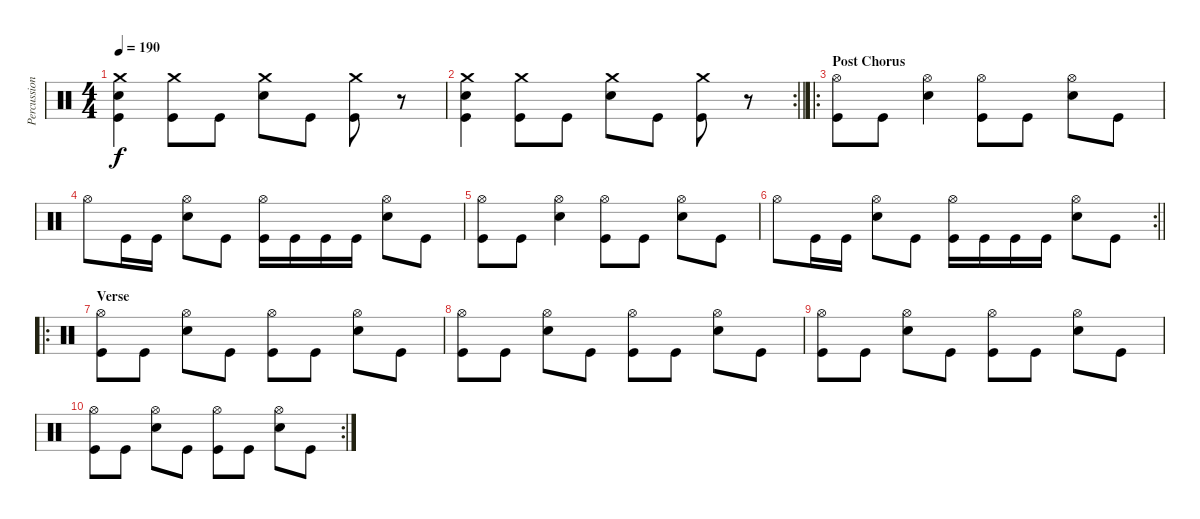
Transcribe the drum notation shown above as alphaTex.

\track ("Percussion" "Percussion") {instrument percussion}
\staff {score}
\articulation defaults
\ts (4 4)
\tempo 190
\clef neutral
\ks c
("Crash medium (hit)" "Snare (hit) 2" "Kick (hit)").4{dy f} ("Crash medium (hit)" "Kick (hit)").8 "Kick (hit)".8 ("Crash medium (hit)" "Snare (hit) 2").8 "Kick (hit)".8 ("Crash medium (hit)" "Kick (hit)").8 r.8 |
\rc 2
\barLineRight lightlight
("Crash medium (hit)" "Snare (hit) 2" "Kick (hit)").4 ("Crash medium (hit)" "Kick (hit)").8 "Kick (hit)".8 ("Crash medium (hit)" "Snare (hit) 2").8 "Kick (hit)".8 ("Crash medium (hit)" "Kick (hit)").8 r.8 |
\ro
\section ("" "Post Chorus")
("Hi-Hat (open)" "Kick (hit)").8 "Kick (hit)".8 ("Hi-Hat (open)" "Snare (hit) 2").4 ("Hi-Hat (open)" "Kick (hit)").8 "Kick (hit)".8 ("Hi-Hat (open)" "Snare (hit) 2").8 "Kick (hit)".8 |
"Hi-Hat (open)".8 "Kick (hit)".16 "Kick (hit)".16 ("Hi-Hat (open)" "Snare (hit) 2").8 "Kick (hit)".8 ("Hi-Hat (open)" "Kick (hit)").16 "Kick (hit)".16 "Kick (hit)".16 "Kick (hit)".16 ("Hi-Hat (open)" "Snare (hit) 2").8 "Kick (hit)".8 |
("Hi-Hat (open)" "Kick (hit)").8 "Kick (hit)".8 ("Hi-Hat (open)" "Snare (hit) 2").4 ("Hi-Hat (open)" "Kick (hit)").8 "Kick (hit)".8 ("Hi-Hat (open)" "Snare (hit) 2").8 "Kick (hit)".8 |
\rc 2
\barLineRight lightlight "Hi-Hat (open)".8 "Kick (hit)".16 "Kick (hit)".16
("Hi-Hat (open)" "Snare (hit) 2").8 "Kick (hit)".8 ("Hi-Hat (open)" "Kick (hit)").16 "Kick (hit)".16 "Kick (hit)".16 "Kick (hit)".16 ("Hi-Hat (open)" "Snare (hit) 2").8 "Kick (hit)".8 |
\ro
\section ("" "Verse")
("Hi-Hat (open)" "Kick (hit)").8 "Kick (hit)".8 ("Hi-Hat (open)" "Snare (hit) 2").8 "Kick (hit)".8 ("Hi-Hat (open)" "Kick (hit)").8 "Kick (hit)".8 ("Hi-Hat (open)" "Snare (hit) 2").8 "Kick (hit)".8 |
("Hi-Hat (open)" "Kick (hit)").8 "Kick (hit)".8 ("Hi-Hat (open)" "Snare (hit) 2").8 "Kick (hit)".8 ("Hi-Hat (open)" "Kick (hit)").8 "Kick (hit)".8 ("Hi-Hat (open)" "Snare (hit) 2").8 "Kick (hit)".8 |
("Hi-Hat (open)" "Kick (hit)").8 "Kick (hit)".8 ("Hi-Hat (open)" "Snare (hit) 2").8 "Kick (hit)".8 ("Hi-Hat (open)" "Kick (hit)").8 "Kick (hit)".8 ("Hi-Hat (open)" "Snare (hit) 2").8 "Kick (hit)".8 |
\rc 2
("Hi-Hat (open)" "Kick (hit)").8 "Kick (hit)".8 ("Hi-Hat (open)" "Snare (hit) 2").8 "Kick (hit)".8 ("Hi-Hat (open)" "Kick (hit)").8 "Kick (hit)".8 ("Hi-Hat (open)" "Snare (hit) 2").8 "Kick (hit)".8
